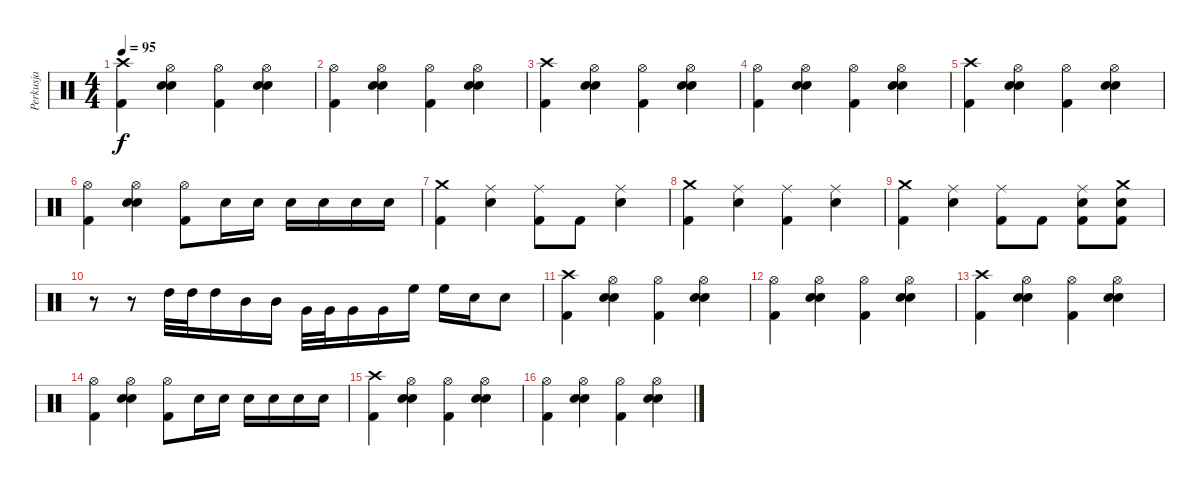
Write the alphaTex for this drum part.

\track ("Perkusja" "Perkusja") {instrument percussion}
\staff {score}
\articulation defaults
\ts (4 4)
\tempo 95
\clef neutral
\ks c
("Crash high (hit)" "Kick (hit) 2").4{dy f} ("Hi-Hat (open)" "Electric Snare (hit)" "Snare (hit) 2").4 ("Hi-Hat (open)" "Kick (hit) 2").4 ("Hi-Hat (open)" "Electric Snare (hit)" "Snare (hit) 2").4 |
("Hi-Hat (open)" "Kick (hit) 2").4 ("Hi-Hat (open)" "Electric Snare (hit)" "Snare (hit) 2").4 ("Hi-Hat (open)" "Kick (hit) 2").4 ("Hi-Hat (open)" "Electric Snare (hit)" "Snare (hit) 2").4 |
("Crash high (hit)" "Kick (hit) 2").4 ("Hi-Hat (open)" "Electric Snare (hit)" "Snare (hit) 2").4 ("Hi-Hat (open)" "Kick (hit) 2").4 ("Hi-Hat (open)" "Electric Snare (hit)" "Snare (hit) 2").4 |
("Hi-Hat (open)" "Kick (hit) 2").4 ("Hi-Hat (open)" "Electric Snare (hit)" "Snare (hit) 2").4 ("Hi-Hat (open)" "Kick (hit) 2").4 ("Hi-Hat (open)" "Electric Snare (hit)" "Snare (hit) 2").4 |
("Crash high (hit)" "Kick (hit) 2").4 ("Hi-Hat (open)" "Electric Snare (hit)" "Snare (hit) 2").4 ("Hi-Hat (open)" "Kick (hit) 2").4 ("Hi-Hat (open)" "Electric Snare (hit)" "Snare (hit) 2").4 |
("Hi-Hat (open)" "Kick (hit) 2").4 ("Hi-Hat (open)" "Electric Snare (hit)" "Snare (hit) 2").4 ("Hi-Hat (open)" "Kick (hit) 2").8 "Snare (hit) 2".16 "Snare (hit) 2".16 "Snare (hit) 2".16 "Snare (hit) 2".16 "Snare (hit) 2".16 "Snare (hit) 2".16 |
("Crash medium (hit)" "Kick (hit) 2").4 ("Ride (middle)" "Snare (hit) 2").4 ("Ride (middle)" "Kick (hit) 2").8 "Kick (hit) 2".8 ("Ride (middle)" "Snare (hit) 2").4 |
("Crash medium (hit)" "Kick (hit) 2").4 ("Ride (middle)" "Snare (hit) 2").4 ("Ride (middle)" "Kick (hit) 2").4 ("Ride (middle)" "Snare (hit) 2").4 |
("Crash medium (hit)" "Kick (hit) 2").4 ("Ride (middle)" "Snare (hit) 2").4 ("Ride (middle)" "Kick (hit) 2").8 "Kick (hit) 2".8 ("Ride (middle)" "Snare (hit) 2" "Kick (hit) 2").8 ("Crash medium (hit)" "Snare (hit) 2" "Kick (hit) 2").8 |
r.8 r.8 "High Tom (hit)".32 "High Tom (hit)".32 "High Tom (hit)".16 "Mid Tom (hit)".16 "Mid Tom (hit)".16 "Very Low Tom (hit)".32 "Very Low Tom (hit)".32 "Very Low Tom (hit)".16 "Very Low Tom (hit)".16 "High Floor Tom (hit)".16 "High Floor Tom (hit)".16 "Snare (hit) 2".16 "Snare (hit) 2".8 |
("Crash high (hit)" "Kick (hit) 2").4 ("Hi-Hat (open)" "Electric Snare (hit)" "Snare (hit) 2").4 ("Hi-Hat (open)" "Kick (hit) 2").4 ("Hi-Hat (open)" "Electric Snare (hit)" "Snare (hit) 2").4 |
("Hi-Hat (open)" "Kick (hit) 2").4 ("Hi-Hat (open)" "Electric Snare (hit)" "Snare (hit) 2").4 ("Hi-Hat (open)" "Kick (hit) 2").4 ("Hi-Hat (open)" "Electric Snare (hit)" "Snare (hit) 2").4 |
("Crash high (hit)" "Kick (hit) 2").4 ("Hi-Hat (open)" "Electric Snare (hit)" "Snare (hit) 2").4 ("Hi-Hat (open)" "Kick (hit) 2").4 ("Hi-Hat (open)" "Electric Snare (hit)" "Snare (hit) 2").4 |
("Hi-Hat (open)" "Kick (hit) 2").4 ("Hi-Hat (open)" "Electric Snare (hit)" "Snare (hit) 2").4 ("Hi-Hat (open)" "Kick (hit) 2").8 "Snare (hit) 2".16 "Snare (hit) 2".16 "Snare (hit) 2".16 "Snare (hit) 2".16 "Snare (hit) 2".16 "Snare (hit) 2".16 |
("Crash high (hit)" "Kick (hit) 2").4 ("Hi-Hat (open)" "Electric Snare (hit)" "Snare (hit) 2").4 ("Hi-Hat (open)" "Kick (hit) 2").4 ("Hi-Hat (open)" "Electric Snare (hit)" "Snare (hit) 2").4 |
("Hi-Hat (open)" "Kick (hit) 2").4 ("Hi-Hat (open)" "Electric Snare (hit)" "Snare (hit) 2").4 ("Hi-Hat (open)" "Kick (hit) 2").4 ("Hi-Hat (open)" "Electric Snare (hit)" "Snare (hit) 2").4
